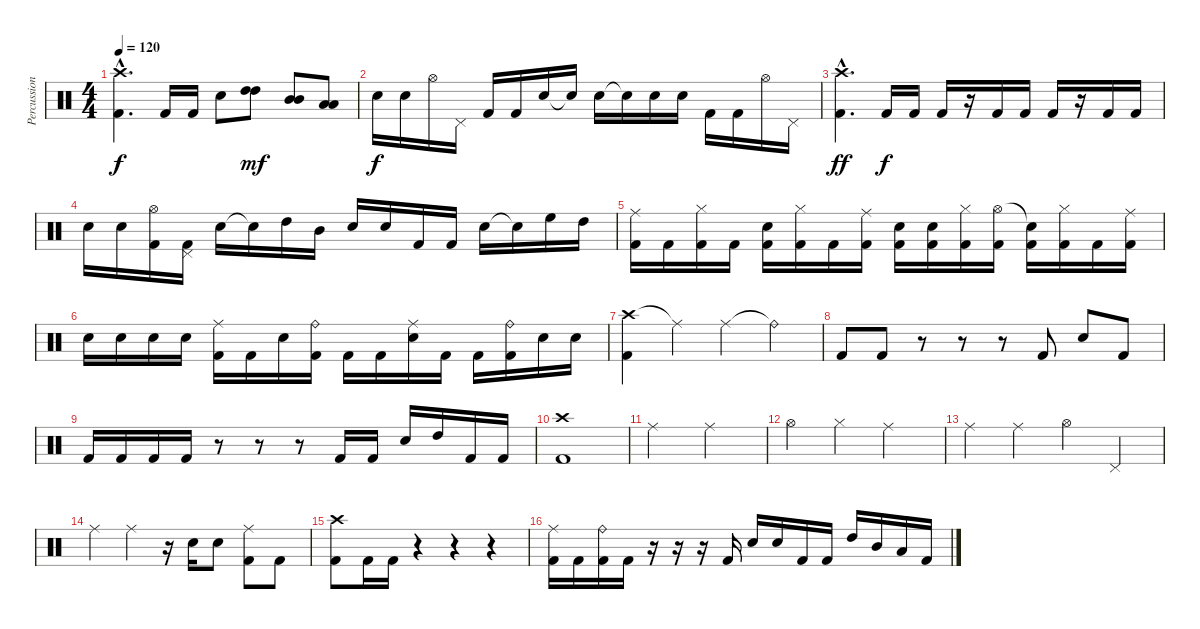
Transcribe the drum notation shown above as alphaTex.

\track ("Percussioni" "Percussion") {instrument percussion}
\staff {score}
\articulation defaults
\ts (4 4)
\tempo 120
\clef neutral
\ks c
("Crash high (hit)"{hac} "Kick (hit) 2"{hac}).4{d dy f} "Kick (hit) 2".16 "Kick (hit) 2".16 "Electric Snare (hit)".8 ("High Tom (hit)" "High Tom (hit)").8{bd 60 dy mf} ("Mid Tom (hit)" "Mid Tom (hit)").8{bd 60} ("Low Tom (hit)" "Low Tom (hit)").8{bd 60} |
"Electric Snare (hit)".16{dy f} "Electric Snare (hit)".16 "Hi-Hat (open)".16 "Pedal Hi-Hat (hit)".16 "Kick (hit) 2".16 "Kick (hit) 2".16 "Electric Snare (hit)".16 "Snare (hit)"{t}.16 "Electric Snare (hit)".16 "Snare (hit)"{t}.16 "Electric Snare (hit)".16 "Electric Snare (hit)".16 "Kick (hit) 2".16 "Kick (hit) 2".16 "Hi-Hat (open)".16 "Pedal Hi-Hat (hit)".16 |
("Crash high (hit)"{hac} "Kick (hit) 2"{hac}).4{d dy ff} "Kick (hit) 2".16{dy f} "Kick (hit) 2".16 "Kick (hit) 2".16 r.16 "Kick (hit) 2".16 "Kick (hit) 2".16 "Kick (hit) 2".16 r.16 "Kick (hit) 2".16 "Kick (hit) 2".16 |
"Electric Snare (hit)".16 "Electric Snare (hit)".16 ("Hi-Hat (open)" "Kick (hit) 2").16 ("Pedal Hi-Hat (hit)" "Kick (hit) 2").16 "Electric Snare (hit)".16 "Snare (hit)"{t}.16 "High Tom (hit)".16 "Mid Tom (hit)".16 "Electric Snare (hit)".16 "Electric Snare (hit)".16 "Kick (hit) 2".16 "Kick (hit) 2".16 "Electric Snare (hit)".16 "Snare (hit)"{t}.16 "High Floor Tom (hit)".16 "High Tom (hit)".16 |
("Ride (middle)" "Kick (hit) 2").16 "Kick (hit) 2".16 ("Hi-Hat (closed)" "Kick (hit) 2").16 "Kick (hit) 2".16 ("Electric Snare (hit)" "Kick (hit) 2").16 ("Hi-Hat (closed)" "Kick (hit) 2").16 "Kick (hit) 2".16 ("Ride (middle)" "Kick (hit) 2").16 ("Electric Snare (hit)" "Kick (hit) 2").16 ("Electric Snare (hit)" "Kick (hit) 2").16 ("Hi-Hat (closed)" "Kick (hit) 2").16 ("Hi-Hat (open)" "Kick (hit) 2").16 ("Snare (hit)"{t} "Kick (hit) 2").16 ("Hi-Hat (closed)" "Kick (hit) 2").16 "Kick (hit) 2".16 ("Ride (middle)" "Kick (hit) 2").16 |
"Electric Snare (hit)".16 "Electric Snare (hit)".16 "Electric Snare (hit)".16 "Electric Snare (hit)".16 ("Ride (middle)" "Kick (hit) 2").16 "Kick (hit) 2".16 "Electric Snare (hit)".16 ("Ride (bell)" "Kick (hit) 2").16 "Kick (hit) 2".16 "Kick (hit) 2".16 ("Ride (middle)" "Electric Snare (hit)").16 "Kick (hit) 2".16 "Kick (hit) 2".16 ("Ride (bell)" "Kick (hit) 2").16 "Electric Snare (hit)".16 "Electric Snare (hit)".16 |
("Crash high (hit)" "Kick (hit) 2").4 "Ride (middle)"{t}.4 "Ride (middle)".4 "Ride (bell)"{t}.4 |
"Kick (hit) 2".8 "Kick (hit) 2".8 r.8 r.8 r.8 "Kick (hit) 2".8 "Electric Snare (hit)".8 "Kick (hit) 2".8 |
"Kick (hit) 2".16 "Kick (hit) 2".16 "Kick (hit) 2".16 "Kick (hit) 2".16 r.8 r.8 r.8 "Kick (hit) 2".16 "Kick (hit) 2".16 "Electric Snare (hit)".16 "High Tom (hit)".16 "Kick (hit) 2".16 "Kick (hit) 2".16 |
("Crash high (hit)" "Kick (hit) 2").1 |
"Ride (middle)".2 "Ride (middle)".2 |
"Hi-Hat (open)".4 "Hi-Hat (closed)".4 "Ride (middle)".2 |
"Ride (middle)".4 "Ride (middle)".4 "Hi-Hat (open)".4 "Pedal Hi-Hat (hit)".4 |
"Ride (middle)".4 "Ride (middle)".4 r.16 "Electric Snare (hit)".16 "Electric Snare (hit)".8 ("Ride (middle)" "Kick (hit) 2").8 "Kick (hit) 2".8 |
("Crash high (hit)" "Kick (hit) 2").8 "Kick (hit) 2".16 "Kick (hit) 2".16 r.4 r.4 r.4 |
("Ride (middle)" "Kick (hit) 2").16 "Kick (hit) 2".16 ("Ride (bell)" "Kick (hit) 2").16 "Kick (hit) 2".16 r.16 r.16 r.16 "Kick (hit) 2".16 "Electric Snare (hit)".16 "Electric Snare (hit)".16 "Kick (hit) 2".16 "Kick (hit) 2".16 "High Tom (hit)".16 "Mid Tom (hit)".16 "Low Tom (hit)".16 "Kick (hit) 2".16
